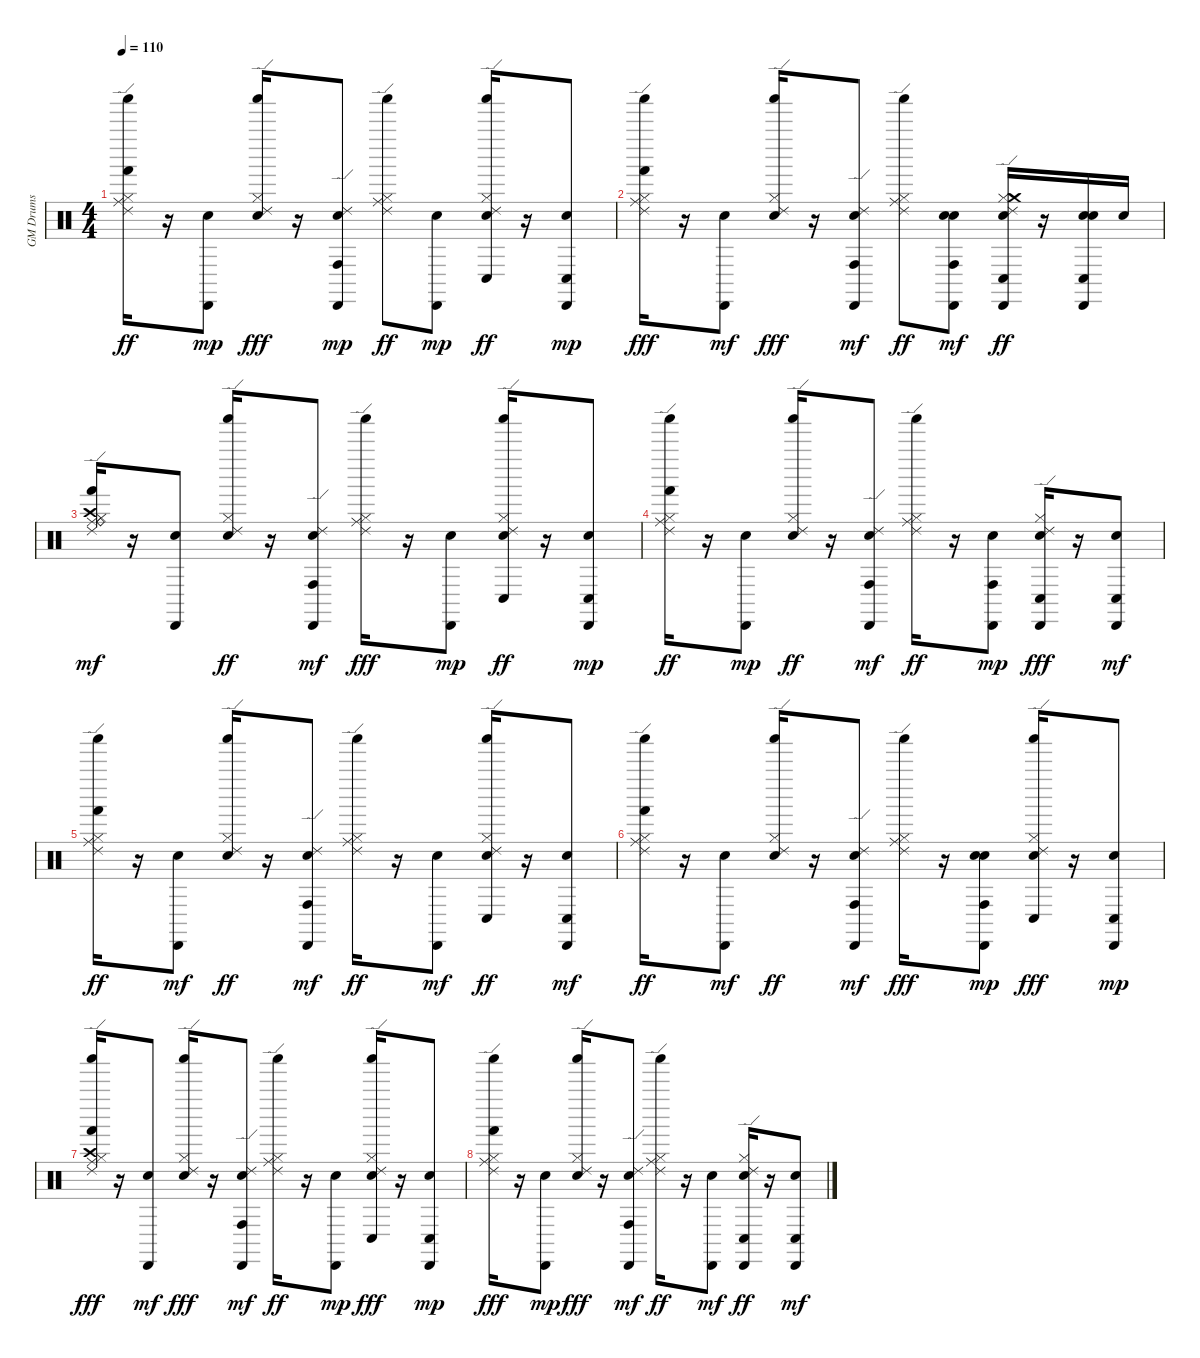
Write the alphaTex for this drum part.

\track ("GM Drums" "GM Drums") {instrument percussion}
\staff {score}
\articulation defaults
\ts (4 4)
\tempo 110
\clef neutral
\ks c
("Hi-Hat (closed)" "Ride (middle)" "Ride (edge) 2" "Hand (hit)" "Shaker (hit)").16{dy ff} r.16 ("Snare (hit)" "Cabasa (hit)").8{dy mp} ("Snare (hit) 2" "Hi-Hat (closed)" "Ride (edge) 2" "Shaker (hit)").16{dy fff} r.16 ("Snare (hit)" "Ride (edge) 2" "Conga high (hit)" "Cabasa (hit)").8{dy mp} ("Hi-Hat (closed)" "Ride (middle)" "Ride (edge) 2" "Shaker (hit)").8{dy ff} ("Snare (hit)" "Cabasa (hit)").8{dy mp} ("Snare (hit) 2" "Hi-Hat (closed)" "Ride (edge) 2" "Conga low (hit)" "Shaker (hit)").16{dy ff} r.16 ("Snare (hit)" "Conga low (hit)" "Cabasa (hit)").8{dy mp} |
("Hi-Hat (closed)" "Ride (middle)" "Ride (edge) 2" "Hand (hit)" "Shaker (hit)").16{dy fff} r.16 ("Snare (hit)" "Cabasa (hit)").8{dy mf} ("Snare (hit) 2" "Hi-Hat (closed)" "Ride (edge) 2" "Shaker (hit)").16{dy fff} r.16 ("Snare (hit)" "Ride (edge) 2" "Conga high (hit)" "Cabasa (hit)").8{dy mf} ("Hi-Hat (closed)" "Ride (middle)" "Ride (edge) 2" "Shaker (hit)").8{dy ff} ("Snare (hit)" "Snare (hit) 2" "Conga high (hit)" "Cabasa (hit)").8{dy mf} ("Snare (hit) 2" "Hi-Hat (closed)" "Crash medium (hit)" "Ride (edge) 2" "Conga low (hit)" "Cabasa (hit)").16{dy ff} r.16 ("Snare (hit)" "Snare (hit) 2" "Conga low (hit)" "Cabasa (hit)").16 "Snare (hit) 2".16 |
("Hi-Hat (closed)" "Crash high (hit)" "Ride (middle)" "Ride (bell)" "Ride (edge) 2" "Hand (hit)").16{dy mf} r.16 ("Snare (hit)" "Cabasa (hit)").8 ("Snare (hit) 2" "Hi-Hat (closed)" "Ride (edge) 2" "Shaker (hit)").16{dy ff} r.16 ("Snare (hit)" "Ride (edge) 2" "Conga high (hit)" "Cabasa (hit)").8{dy mf} ("Hi-Hat (closed)" "Ride (middle)" "Ride (edge) 2" "Shaker (hit)").16{dy fff} r.16 ("Snare (hit)" "Cabasa (hit)").8{dy mp} ("Snare (hit) 2" "Hi-Hat (closed)" "Ride (edge) 2" "Conga low (hit)" "Shaker (hit)").16{dy ff} r.16 ("Snare (hit)" "Conga low (hit)" "Cabasa (hit)").8{dy mp} |
("Hi-Hat (closed)" "Ride (middle)" "Ride (edge) 2" "Hand (hit)" "Shaker (hit)").16{dy ff} r.16 ("Snare (hit)" "Cabasa (hit)").8{dy mp} ("Snare (hit) 2" "Hi-Hat (closed)" "Ride (edge) 2" "Shaker (hit)").16{dy ff} r.16 ("Snare (hit)" "Ride (edge) 2" "Conga high (hit)" "Cabasa (hit)").8{dy mf} ("Hi-Hat (closed)" "Ride (middle)" "Ride (edge) 2" "Shaker (hit)").16{dy ff} r.16 ("Snare (hit)" "Conga high (hit)" "Cabasa (hit)").8{dy mp} ("Snare (hit) 2" "Hi-Hat (closed)" "Ride (edge) 2" "Conga low (hit)" "Cabasa (hit)").16{dy fff} r.16 ("Snare (hit)" "Conga low (hit)" "Cabasa (hit)").8{dy mf} |
("Hi-Hat (closed)" "Ride (middle)" "Ride (edge) 2" "Hand (hit)" "Shaker (hit)").16{dy ff} r.16 ("Snare (hit)" "Cabasa (hit)").8{dy mf} ("Snare (hit) 2" "Hi-Hat (closed)" "Ride (edge) 2" "Shaker (hit)").16{dy ff} r.16 ("Snare (hit)" "Ride (edge) 2" "Conga high (hit)" "Cabasa (hit)").8{dy mf} ("Hi-Hat (closed)" "Ride (middle)" "Ride (edge) 2" "Shaker (hit)").16{dy ff} r.16 ("Snare (hit)" "Cabasa (hit)").8{dy mf} ("Snare (hit) 2" "Hi-Hat (closed)" "Ride (edge) 2" "Conga low (hit)" "Shaker (hit)").16{dy ff} r.16 ("Snare (hit)" "Conga low (hit)" "Cabasa (hit)").8{dy mf} |
("Hi-Hat (closed)" "Ride (middle)" "Ride (edge) 2" "Hand (hit)" "Shaker (hit)").16{dy ff} r.16 ("Snare (hit)" "Cabasa (hit)").8{dy mf} ("Snare (hit) 2" "Hi-Hat (closed)" "Ride (edge) 2" "Shaker (hit)").16{dy ff} r.16 ("Snare (hit)" "Ride (edge) 2" "Conga high (hit)" "Cabasa (hit)").8{dy mf} ("Hi-Hat (closed)" "Ride (middle)" "Ride (edge) 2" "Shaker (hit)").16{dy fff} r.16 ("Snare (hit)" "Snare (hit) 2" "Conga high (hit)" "Cabasa (hit)").8{dy mp} ("Snare (hit) 2" "Hi-Hat (closed)" "Ride (edge) 2" "Conga low (hit)" "Shaker (hit)").16{dy fff} r.16 ("Snare (hit)" "Conga low (hit)" "Cabasa (hit)").8{dy mp} |
("Hi-Hat (closed)" "Crash high (hit)" "Ride (middle)" "Ride (edge) 2" "Hand (hit)" "Shaker (hit)").16{dy fff} r.16 ("Snare (hit)" "Cabasa (hit)").8{dy mf} ("Snare (hit) 2" "Hi-Hat (closed)" "Ride (edge) 2" "Shaker (hit)").16{dy fff} r.16 ("Snare (hit)" "Ride (edge) 2" "Conga high (hit)" "Cabasa (hit)").8{dy mf} ("Hi-Hat (closed)" "Ride (middle)" "Ride (edge) 2" "Shaker (hit)").16{dy ff} r.16 ("Snare (hit)" "Cabasa (hit)").8{dy mp} ("Snare (hit) 2" "Hi-Hat (closed)" "Ride (edge) 2" "Conga low (hit)" "Shaker (hit)").16{dy fff} r.16 ("Snare (hit)" "Conga low (hit)" "Cabasa (hit)").8{dy mp} |
("Hi-Hat (closed)" "Ride (middle)" "Ride (edge) 2" "Hand (hit)" "Shaker (hit)").16{dy fff} r.16 ("Snare (hit)" "Cabasa (hit)").8{dy mp} ("Snare (hit) 2" "Hi-Hat (closed)" "Ride (edge) 2" "Shaker (hit)").16{dy fff} r.16 ("Snare (hit)" "Ride (edge) 2" "Conga high (hit)" "Cabasa (hit)").8{dy mf} ("Hi-Hat (closed)" "Ride (middle)" "Ride (edge) 2" "Shaker (hit)").16{dy ff} r.16 ("Snare (hit)" "Cabasa (hit)").8{dy mf} ("Snare (hit) 2" "Hi-Hat (closed)" "Ride (edge) 2" "Conga low (hit)" "Cabasa (hit)").16{dy ff} r.16 ("Snare (hit)" "Conga low (hit)" "Cabasa (hit)").8{dy mf}
